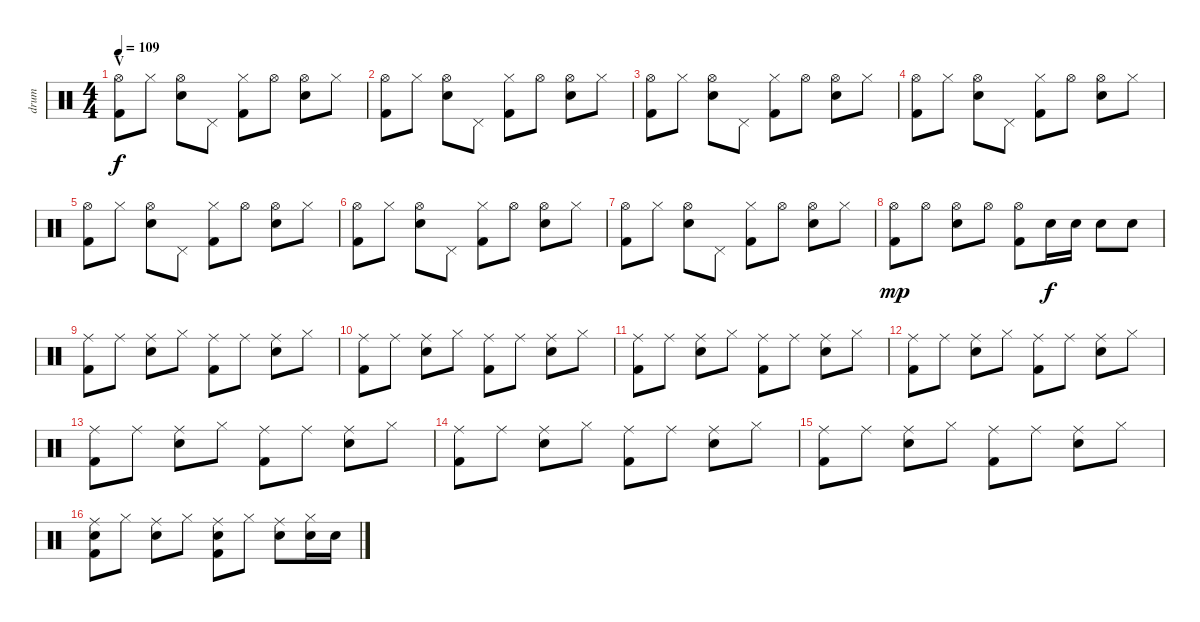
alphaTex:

\track ("drum" "drum") {instrument percussion}
\staff {score}
\articulation defaults
\ts (4 4)
\section ("" "V")
\tempo 109
\clef neutral
\ks c
("Hi-Hat (open)" "Kick (hit) 2").8{dy f} "Hi-Hat (closed)".8 ("Hi-Hat (open)" "Electric Snare (hit)").8 "Pedal Hi-Hat (hit)".8 ("Hi-Hat (closed)" "Kick (hit) 2").8 "Hi-Hat (open)".8 ("Hi-Hat (open)" "Electric Snare (hit)").8 "Hi-Hat (closed)".8 |
("Hi-Hat (open)" "Kick (hit) 2").8 "Hi-Hat (closed)".8 ("Hi-Hat (open)" "Electric Snare (hit)").8 "Pedal Hi-Hat (hit)".8 ("Hi-Hat (closed)" "Kick (hit) 2").8 "Hi-Hat (open)".8 ("Hi-Hat (open)" "Electric Snare (hit)").8 "Hi-Hat (closed)".8 |
("Hi-Hat (open)" "Kick (hit) 2").8 "Hi-Hat (closed)".8 ("Hi-Hat (open)" "Electric Snare (hit)").8 "Pedal Hi-Hat (hit)".8 ("Hi-Hat (closed)" "Kick (hit) 2").8 "Hi-Hat (open)".8 ("Hi-Hat (open)" "Electric Snare (hit)").8 "Hi-Hat (closed)".8 |
("Hi-Hat (open)" "Kick (hit) 2").8 "Hi-Hat (closed)".8 ("Hi-Hat (open)" "Electric Snare (hit)").8 "Pedal Hi-Hat (hit)".8 ("Hi-Hat (closed)" "Kick (hit) 2").8 "Hi-Hat (open)".8 ("Hi-Hat (open)" "Electric Snare (hit)").8 "Hi-Hat (closed)".8 |
("Hi-Hat (open)" "Kick (hit) 2").8 "Hi-Hat (closed)".8 ("Hi-Hat (open)" "Electric Snare (hit)").8 "Pedal Hi-Hat (hit)".8 ("Hi-Hat (closed)" "Kick (hit) 2").8 "Hi-Hat (open)".8 ("Hi-Hat (open)" "Electric Snare (hit)").8 "Hi-Hat (closed)".8 |
("Hi-Hat (open)" "Kick (hit) 2").8 "Hi-Hat (closed)".8 ("Hi-Hat (open)" "Electric Snare (hit)").8 "Pedal Hi-Hat (hit)".8 ("Hi-Hat (closed)" "Kick (hit) 2").8 "Hi-Hat (open)".8 ("Hi-Hat (open)" "Electric Snare (hit)").8 "Hi-Hat (closed)".8 |
("Hi-Hat (open)" "Kick (hit) 2").8 "Hi-Hat (closed)".8 ("Hi-Hat (open)" "Electric Snare (hit)").8 "Pedal Hi-Hat (hit)".8 ("Hi-Hat (closed)" "Kick (hit) 2").8 "Hi-Hat (open)".8 ("Hi-Hat (open)" "Electric Snare (hit)").8 "Hi-Hat (closed)".8 |
("Hi-Hat (open)" "Kick (hit) 2").8{dy mp} "Hi-Hat (open)".8 ("Hi-Hat (open)" "Electric Snare (hit)").8 "Hi-Hat (open)".8 ("Hi-Hat (open)" "Kick (hit) 2").8 "Electric Snare (hit)".16{dy f} "Electric Snare (hit)".16 "Electric Snare (hit)".8 "Electric Snare (hit)".8 |
("Ride (middle)" "Kick (hit) 2").8 "Ride (middle)".8 ("Ride (middle)" "Electric Snare (hit)").8 "Hi-Hat (closed)".8 ("Ride (middle)" "Kick (hit) 2").8 "Ride (middle)".8 ("Ride (middle)" "Electric Snare (hit)").8 "Hi-Hat (closed)".8 |
("Ride (middle)" "Kick (hit) 2").8 "Ride (middle)".8 ("Ride (middle)" "Electric Snare (hit)").8 "Hi-Hat (closed)".8 ("Ride (middle)" "Kick (hit) 2").8 "Ride (middle)".8 ("Ride (middle)" "Electric Snare (hit)").8 "Hi-Hat (closed)".8 |
("Ride (middle)" "Kick (hit) 2").8 "Ride (middle)".8 ("Ride (middle)" "Electric Snare (hit)").8 "Hi-Hat (closed)".8 ("Ride (middle)" "Kick (hit) 2").8 "Ride (middle)".8 ("Ride (middle)" "Electric Snare (hit)").8 "Hi-Hat (closed)".8 |
("Ride (middle)" "Kick (hit) 2").8 "Ride (middle)".8 ("Ride (middle)" "Electric Snare (hit)").8 "Hi-Hat (closed)".8 ("Ride (middle)" "Kick (hit) 2").8 "Ride (middle)".8 ("Ride (middle)" "Electric Snare (hit)").8 "Hi-Hat (closed)".8 |
("Ride (middle)" "Kick (hit) 2").8 "Ride (middle)".8 ("Ride (middle)" "Electric Snare (hit)").8 "Hi-Hat (closed)".8 ("Ride (middle)" "Kick (hit) 2").8 "Ride (middle)".8 ("Ride (middle)" "Electric Snare (hit)").8 "Hi-Hat (closed)".8 |
("Ride (middle)" "Kick (hit) 2").8 "Ride (middle)".8 ("Ride (middle)" "Electric Snare (hit)").8 "Hi-Hat (closed)".8 ("Ride (middle)" "Kick (hit) 2").8 "Ride (middle)".8 ("Ride (middle)" "Electric Snare (hit)").8 "Hi-Hat (closed)".8 |
("Ride (middle)" "Kick (hit) 2").8 "Ride (middle)".8 ("Ride (middle)" "Electric Snare (hit)").8 "Hi-Hat (closed)".8 ("Ride (middle)" "Kick (hit) 2").8 "Ride (middle)".8 ("Ride (middle)" "Electric Snare (hit)").8 "Hi-Hat (closed)".8 |
("Ride (middle)" "Electric Snare (hit)" "Kick (hit) 2").8 "Hi-Hat (closed)".8 ("Ride (middle)" "Electric Snare (hit)").8 "Hi-Hat (closed)".8 ("Ride (middle)" "Electric Snare (hit)" "Kick (hit) 2").8 "Hi-Hat (closed)".8 ("Ride (middle)" "Electric Snare (hit)").8 ("Hi-Hat (closed)" "Electric Snare (hit)").16 "Electric Snare (hit)".16
